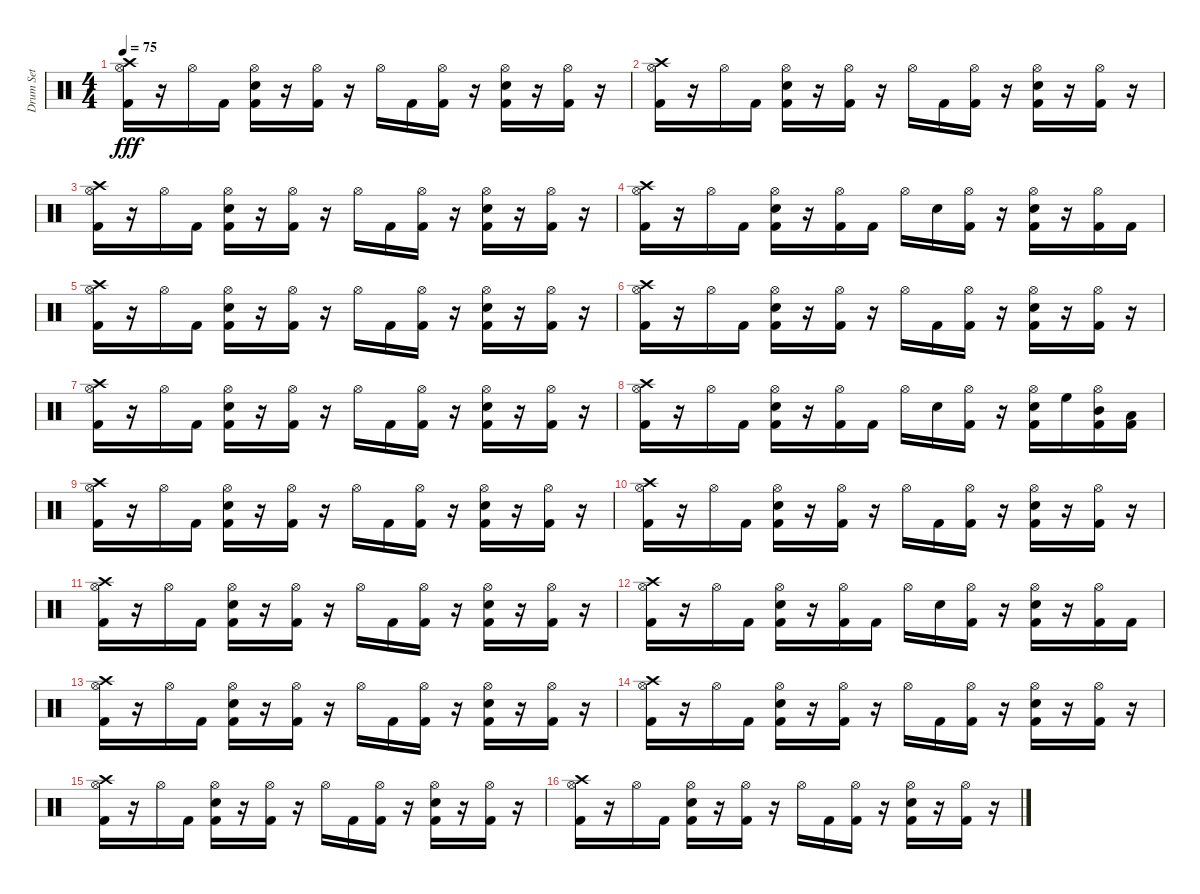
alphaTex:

\track ("Drum Set" "Drum Set") {instrument percussion}
\staff {score}
\articulation defaults
\ts (4 4)
\tempo 75
\clef neutral
\ks c
("Hi-Hat (open)" "Crash high (hit)" "Kick (hit) 2").16{dy fff} r.16 "Hi-Hat (open)".16 "Kick (hit) 2".16 ("Hi-Hat (open)" "Snare (hit) 2" "Kick (hit) 2").16 r.16 ("Hi-Hat (open)" "Kick (hit) 2").16 r.16 "Hi-Hat (open)".16 "Kick (hit) 2".16 ("Hi-Hat (open)" "Kick (hit) 2").16 r.16 ("Hi-Hat (open)" "Snare (hit) 2" "Kick (hit) 2").16 r.16 ("Hi-Hat (open)" "Kick (hit) 2").16 r.16 |
("Hi-Hat (open)" "Crash high (hit)" "Kick (hit) 2").16 r.16 "Hi-Hat (open)".16 "Kick (hit) 2".16 ("Hi-Hat (open)" "Snare (hit) 2" "Kick (hit) 2").16 r.16 ("Hi-Hat (open)" "Kick (hit) 2").16 r.16 "Hi-Hat (open)".16 "Kick (hit) 2".16 ("Hi-Hat (open)" "Kick (hit) 2").16 r.16 ("Hi-Hat (open)" "Snare (hit) 2" "Kick (hit) 2").16 r.16 ("Hi-Hat (open)" "Kick (hit) 2").16 r.16 |
("Hi-Hat (open)" "Crash high (hit)" "Kick (hit) 2").16 r.16 "Hi-Hat (open)".16 "Kick (hit) 2".16 ("Hi-Hat (open)" "Snare (hit) 2" "Kick (hit) 2").16 r.16 ("Hi-Hat (open)" "Kick (hit) 2").16 r.16 "Hi-Hat (open)".16 "Kick (hit) 2".16 ("Hi-Hat (open)" "Kick (hit) 2").16 r.16 ("Hi-Hat (open)" "Snare (hit) 2" "Kick (hit) 2").16 r.16 ("Hi-Hat (open)" "Kick (hit) 2").16 r.16 |
("Hi-Hat (open)" "Crash high (hit)" "Kick (hit) 2").16 r.16 "Hi-Hat (open)".16 "Kick (hit) 2".16 ("Hi-Hat (open)" "Snare (hit) 2" "Kick (hit) 2").16 r.16 ("Hi-Hat (open)" "Kick (hit) 2").16 "Kick (hit) 2".16 "Hi-Hat (open)".16 "Snare (hit) 2".16 ("Hi-Hat (open)" "Kick (hit) 2").16 r.16 ("Hi-Hat (open)" "Snare (hit) 2" "Kick (hit) 2").16 r.16 ("Hi-Hat (open)" "Kick (hit) 2").16 "Kick (hit) 2".16 |
("Hi-Hat (open)" "Crash high (hit)" "Kick (hit) 2").16 r.16 "Hi-Hat (open)".16 "Kick (hit) 2".16 ("Hi-Hat (open)" "Snare (hit) 2" "Kick (hit) 2").16 r.16 ("Hi-Hat (open)" "Kick (hit) 2").16 r.16 "Hi-Hat (open)".16 "Kick (hit) 2".16 ("Hi-Hat (open)" "Kick (hit) 2").16 r.16 ("Hi-Hat (open)" "Snare (hit) 2" "Kick (hit) 2").16 r.16 ("Hi-Hat (open)" "Kick (hit) 2").16 r.16 |
("Hi-Hat (open)" "Crash high (hit)" "Kick (hit) 2").16 r.16 "Hi-Hat (open)".16 "Kick (hit) 2".16 ("Hi-Hat (open)" "Snare (hit) 2" "Kick (hit) 2").16 r.16 ("Hi-Hat (open)" "Kick (hit) 2").16 r.16 "Hi-Hat (open)".16 "Kick (hit) 2".16 ("Hi-Hat (open)" "Kick (hit) 2").16 r.16 ("Hi-Hat (open)" "Snare (hit) 2" "Kick (hit) 2").16 r.16 ("Hi-Hat (open)" "Kick (hit) 2").16 r.16 |
("Hi-Hat (open)" "Crash high (hit)" "Kick (hit) 2").16 r.16 "Hi-Hat (open)".16 "Kick (hit) 2".16 ("Hi-Hat (open)" "Snare (hit) 2" "Kick (hit) 2").16 r.16 ("Hi-Hat (open)" "Kick (hit) 2").16 r.16 "Hi-Hat (open)".16 "Kick (hit) 2".16 ("Hi-Hat (open)" "Kick (hit) 2").16 r.16 ("Hi-Hat (open)" "Snare (hit) 2" "Kick (hit) 2").16 r.16 ("Hi-Hat (open)" "Kick (hit) 2").16 r.16 |
("Hi-Hat (open)" "Crash high (hit)" "Kick (hit) 2").16 r.16 "Hi-Hat (open)".16 "Kick (hit) 2".16 ("Hi-Hat (open)" "Snare (hit) 2" "Kick (hit) 2").16 r.16 ("Hi-Hat (open)" "Kick (hit) 2").16 "Kick (hit) 2".16 "Hi-Hat (open)".16 "Snare (hit) 2".16 ("Hi-Hat (open)" "Kick (hit) 2").16 r.16 ("Hi-Hat (open)" "Snare (hit) 2" "Kick (hit) 2").16 "High Floor Tom (hit)".16 ("Hi-Hat (open)" "Mid Tom (hit)" "Kick (hit) 2").16 ("Low Tom (hit)" "Kick (hit) 2").16 |
("Hi-Hat (open)" "Crash high (hit)" "Kick (hit) 2").16 r.16 "Hi-Hat (open)".16 "Kick (hit) 2".16 ("Hi-Hat (open)" "Snare (hit) 2" "Kick (hit) 2").16 r.16 ("Hi-Hat (open)" "Kick (hit) 2").16 r.16 "Hi-Hat (open)".16 "Kick (hit) 2".16 ("Hi-Hat (open)" "Kick (hit) 2").16 r.16 ("Hi-Hat (open)" "Snare (hit) 2" "Kick (hit) 2").16 r.16 ("Hi-Hat (open)" "Kick (hit) 2").16 r.16 |
("Hi-Hat (open)" "Crash high (hit)" "Kick (hit) 2").16 r.16 "Hi-Hat (open)".16 "Kick (hit) 2".16 ("Hi-Hat (open)" "Snare (hit) 2" "Kick (hit) 2").16 r.16 ("Hi-Hat (open)" "Kick (hit) 2").16 r.16 "Hi-Hat (open)".16 "Kick (hit) 2".16 ("Hi-Hat (open)" "Kick (hit) 2").16 r.16 ("Hi-Hat (open)" "Snare (hit) 2" "Kick (hit) 2").16 r.16 ("Hi-Hat (open)" "Kick (hit) 2").16 r.16 |
("Hi-Hat (open)" "Crash high (hit)" "Kick (hit) 2").16 r.16 "Hi-Hat (open)".16 "Kick (hit) 2".16 ("Hi-Hat (open)" "Snare (hit) 2" "Kick (hit) 2").16 r.16 ("Hi-Hat (open)" "Kick (hit) 2").16 r.16 "Hi-Hat (open)".16 "Kick (hit) 2".16 ("Hi-Hat (open)" "Kick (hit) 2").16 r.16 ("Hi-Hat (open)" "Snare (hit) 2" "Kick (hit) 2").16 r.16 ("Hi-Hat (open)" "Kick (hit) 2").16 r.16 |
("Hi-Hat (open)" "Crash high (hit)" "Kick (hit) 2").16 r.16 "Hi-Hat (open)".16 "Kick (hit) 2".16 ("Hi-Hat (open)" "Snare (hit) 2" "Kick (hit) 2").16 r.16 ("Hi-Hat (open)" "Kick (hit) 2").16 "Kick (hit) 2".16 "Hi-Hat (open)".16 "Snare (hit) 2".16 ("Hi-Hat (open)" "Kick (hit) 2").16 r.16 ("Hi-Hat (open)" "Snare (hit) 2" "Kick (hit) 2").16 r.16 ("Hi-Hat (open)" "Kick (hit) 2").16 "Kick (hit) 2".16 |
("Hi-Hat (open)" "Crash high (hit)" "Kick (hit) 2").16 r.16 "Hi-Hat (open)".16 "Kick (hit) 2".16 ("Hi-Hat (open)" "Snare (hit) 2" "Kick (hit) 2").16 r.16 ("Hi-Hat (open)" "Kick (hit) 2").16 r.16 "Hi-Hat (open)".16 "Kick (hit) 2".16 ("Hi-Hat (open)" "Kick (hit) 2").16 r.16 ("Hi-Hat (open)" "Snare (hit) 2" "Kick (hit) 2").16 r.16 ("Hi-Hat (open)" "Kick (hit) 2").16 r.16 |
("Hi-Hat (open)" "Crash high (hit)" "Kick (hit) 2").16 r.16 "Hi-Hat (open)".16 "Kick (hit) 2".16 ("Hi-Hat (open)" "Snare (hit) 2" "Kick (hit) 2").16 r.16 ("Hi-Hat (open)" "Kick (hit) 2").16 r.16 "Hi-Hat (open)".16 "Kick (hit) 2".16 ("Hi-Hat (open)" "Kick (hit) 2").16 r.16 ("Hi-Hat (open)" "Snare (hit) 2" "Kick (hit) 2").16 r.16 ("Hi-Hat (open)" "Kick (hit) 2").16 r.16 |
("Hi-Hat (open)" "Crash high (hit)" "Kick (hit) 2").16 r.16 "Hi-Hat (open)".16 "Kick (hit) 2".16 ("Hi-Hat (open)" "Snare (hit) 2" "Kick (hit) 2").16 r.16 ("Hi-Hat (open)" "Kick (hit) 2").16 r.16 "Hi-Hat (open)".16 "Kick (hit) 2".16 ("Hi-Hat (open)" "Kick (hit) 2").16 r.16 ("Hi-Hat (open)" "Snare (hit) 2" "Kick (hit) 2").16 r.16 ("Hi-Hat (open)" "Kick (hit) 2").16 r.16 |
("Hi-Hat (open)" "Crash high (hit)" "Kick (hit) 2").16 r.16 "Hi-Hat (open)".16 "Kick (hit) 2".16 ("Hi-Hat (open)" "Snare (hit) 2" "Kick (hit) 2").16 r.16 ("Hi-Hat (open)" "Kick (hit) 2").16 r.16 "Hi-Hat (open)".16 "Kick (hit) 2".16 ("Hi-Hat (open)" "Kick (hit) 2").16 r.16 ("Hi-Hat (open)" "Snare (hit) 2" "Kick (hit) 2").16 r.16 ("Hi-Hat (open)" "Kick (hit) 2").16 r.16
